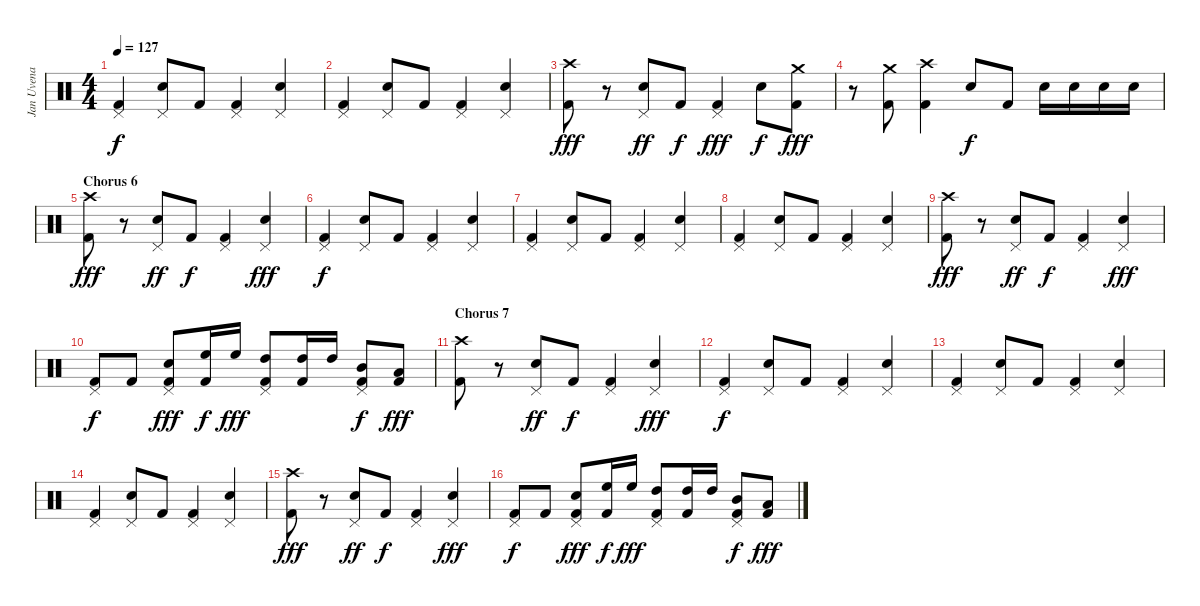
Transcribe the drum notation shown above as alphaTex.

\track ("Jan Uvena" "Jan Uvena") {instrument percussion}
\staff {score}
\articulation defaults
\ts (4 4)
\tempo 127
\clef neutral
\ks c
("Pedal Hi-Hat (hit)" "Kick (hit) 2").4{dy f} ("Pedal Hi-Hat (hit)" "Snare (hit) 2").8 "Kick (hit) 2".8 ("Pedal Hi-Hat (hit)" "Kick (hit) 2").4 ("Pedal Hi-Hat (hit)" "Snare (hit) 2").4 |
("Pedal Hi-Hat (hit)" "Kick (hit) 2").4 ("Pedal Hi-Hat (hit)" "Snare (hit) 2").8 "Kick (hit) 2".8 ("Pedal Hi-Hat (hit)" "Kick (hit) 2").4 ("Pedal Hi-Hat (hit)" "Snare (hit) 2").4 |
("Crash high (hit)" "Kick (hit) 2").8{dy fff} r.8 ("Pedal Hi-Hat (hit)" "Snare (hit) 2").8{dy ff} "Kick (hit) 2".8{dy f} ("Pedal Hi-Hat (hit)" "Kick (hit) 2").4{dy fff} "Snare (hit) 2".8{dy f} ("Crash medium (hit)" "Kick (hit) 2").8{dy fff} |
r.8 ("Crash medium (hit)" "Kick (hit) 2").8 ("Crash high (hit)" "Kick (hit) 2").4 "Snare (hit) 2".8{dy f} "Kick (hit) 2".8 "Snare (hit) 2".16 "Snare (hit) 2".16 "Snare (hit) 2".16 "Snare (hit) 2".16 |
\section ("" "Chorus 6")
("Crash high (hit)" "Kick (hit) 2").8{dy fff} r.8 ("Pedal Hi-Hat (hit)" "Snare (hit) 2").8{dy ff} "Kick (hit) 2".8{dy f} ("Pedal Hi-Hat (hit)" "Kick (hit) 2").4 ("Pedal Hi-Hat (hit)" "Snare (hit) 2").4{dy fff} |
("Pedal Hi-Hat (hit)" "Kick (hit) 2").4{dy f} ("Pedal Hi-Hat (hit)" "Snare (hit) 2").8 "Kick (hit) 2".8 ("Pedal Hi-Hat (hit)" "Kick (hit) 2").4 ("Pedal Hi-Hat (hit)" "Snare (hit) 2").4 |
("Pedal Hi-Hat (hit)" "Kick (hit) 2").4 ("Pedal Hi-Hat (hit)" "Snare (hit) 2").8 "Kick (hit) 2".8 ("Pedal Hi-Hat (hit)" "Kick (hit) 2").4 ("Pedal Hi-Hat (hit)" "Snare (hit) 2").4 |
("Pedal Hi-Hat (hit)" "Kick (hit) 2").4 ("Pedal Hi-Hat (hit)" "Snare (hit) 2").8 "Kick (hit) 2".8 ("Pedal Hi-Hat (hit)" "Kick (hit) 2").4 ("Pedal Hi-Hat (hit)" "Snare (hit) 2").4 |
("Crash high (hit)" "Kick (hit) 2").8{dy fff} r.8 ("Pedal Hi-Hat (hit)" "Snare (hit) 2").8{dy ff} "Kick (hit) 2".8{dy f} ("Pedal Hi-Hat (hit)" "Kick (hit) 2").4 ("Pedal Hi-Hat (hit)" "Snare (hit) 2").4{dy fff} |
("Pedal Hi-Hat (hit)" "Kick (hit) 2").8{dy f} "Kick (hit) 2".8 ("Pedal Hi-Hat (hit)" "Snare (hit) 2" "Kick (hit) 2").8{dy fff} ("High Floor Tom (hit)" "Kick (hit) 2").16{dy f} "High Floor Tom (hit)".16{dy fff} ("High Tom (hit)" "Pedal Hi-Hat (hit)" "Kick (hit) 2").8 ("High Tom (hit)" "Kick (hit) 2").16 "High Tom (hit)".16 ("Mid Tom (hit)" "Pedal Hi-Hat (hit)" "Kick (hit) 2").8{dy f} ("Low Tom (hit)" "Kick (hit) 2").8{dy fff} |
\section ("" "Chorus 7")
("Crash high (hit)" "Kick (hit) 2").8 r.8 ("Pedal Hi-Hat (hit)" "Snare (hit) 2").8{dy ff} "Kick (hit) 2".8{dy f} ("Pedal Hi-Hat (hit)" "Kick (hit) 2").4 ("Pedal Hi-Hat (hit)" "Snare (hit) 2").4{dy fff} |
("Pedal Hi-Hat (hit)" "Kick (hit) 2").4{dy f} ("Pedal Hi-Hat (hit)" "Snare (hit) 2").8 "Kick (hit) 2".8 ("Pedal Hi-Hat (hit)" "Kick (hit) 2").4 ("Pedal Hi-Hat (hit)" "Snare (hit) 2").4 |
("Pedal Hi-Hat (hit)" "Kick (hit) 2").4 ("Pedal Hi-Hat (hit)" "Snare (hit) 2").8 "Kick (hit) 2".8 ("Pedal Hi-Hat (hit)" "Kick (hit) 2").4 ("Pedal Hi-Hat (hit)" "Snare (hit) 2").4 |
("Pedal Hi-Hat (hit)" "Kick (hit) 2").4 ("Pedal Hi-Hat (hit)" "Snare (hit) 2").8 "Kick (hit) 2".8 ("Pedal Hi-Hat (hit)" "Kick (hit) 2").4 ("Pedal Hi-Hat (hit)" "Snare (hit) 2").4 |
("Crash high (hit)" "Kick (hit) 2").8{dy fff volume 12} r.8 ("Pedal Hi-Hat (hit)" "Snare (hit) 2").8{dy ff} "Kick (hit) 2".8{dy f} ("Pedal Hi-Hat (hit)" "Kick (hit) 2").4 ("Pedal Hi-Hat (hit)" "Snare (hit) 2").4{dy fff} |
("Pedal Hi-Hat (hit)" "Kick (hit) 2").8{dy f} "Kick (hit) 2".8 ("Pedal Hi-Hat (hit)" "Snare (hit) 2" "Kick (hit) 2").8{dy fff} ("High Floor Tom (hit)" "Kick (hit) 2").16{dy f} "High Floor Tom (hit)".16{dy fff} ("High Tom (hit)" "Pedal Hi-Hat (hit)" "Kick (hit) 2").8 ("High Tom (hit)" "Kick (hit) 2").16 "High Tom (hit)".16 ("Mid Tom (hit)" "Pedal Hi-Hat (hit)" "Kick (hit) 2").8{dy f} ("Low Tom (hit)" "Kick (hit) 2").8{dy fff}
